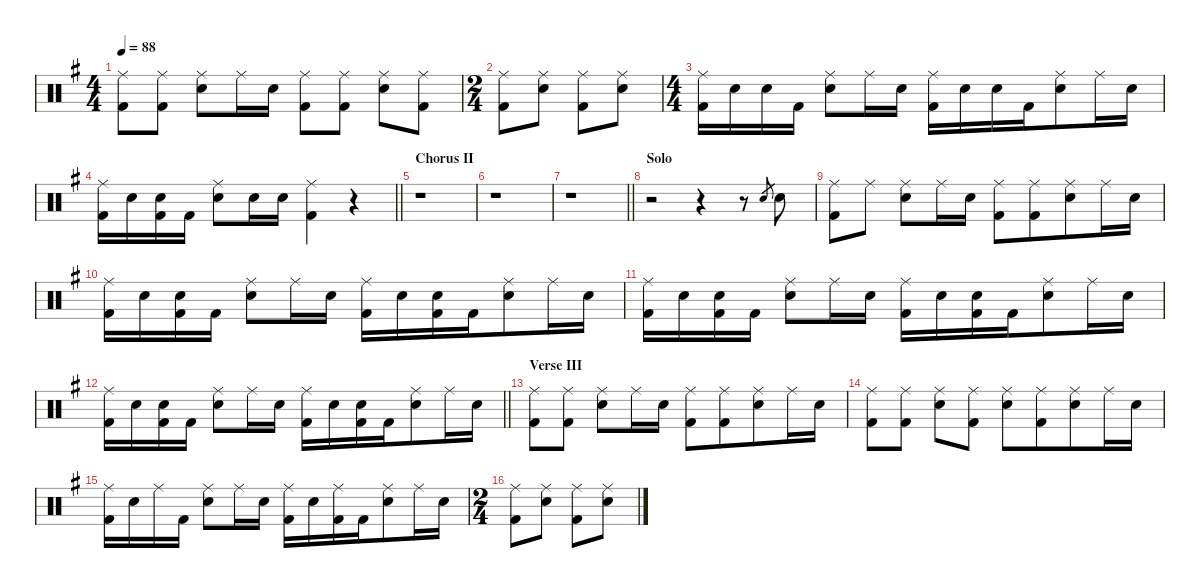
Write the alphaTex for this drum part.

\defaultSystemsLayout 4
\hideDynamics
\bracketExtendMode nobrackets
\singleTrackTrackNamePolicy hidden
\multiTrackTrackNamePolicy hidden
\firstSystemTrackNameMode fullname
\firstSystemTrackNameOrientation horizontal
\otherSystemsTrackNameOrientation horizontal
\track ("Drums" "drm.") {instrument percussion}
\staff {score}
\articulation defaults
\ts (4 4)
\tempo 88
\clef neutral
\ks g
("Ride (middle)"{acc forcenatural} "Kick (hit) 2"{acc forcenatural}).8{dy f beam Down} ("Ride (middle)"{acc forcenatural} "Kick (hit) 2"{acc forcenatural}).8{beam Down} ("Ride (middle)"{acc forcenatural} "Snare (hit) 2"{acc forcenatural}).8{beam Down} "Ride (middle)"{acc forcenatural}.16{beam Down} "Snare (hit) 2"{acc forcenatural}.16{beam Down} ("Ride (middle)"{acc forcenatural} "Kick (hit) 2"{acc forcenatural}).8{beam Down} ("Ride (middle)"{acc forcenatural} "Kick (hit) 2"{acc forcenatural}).8{beam Down} ("Ride (middle)"{acc forcenatural} "Snare (hit) 2"{acc forcenatural}).8{beam Down} ("Ride (middle)"{acc forcenatural} "Kick (hit) 2"{acc forcenatural}).8{beam Down} |
\ts (2 4)
\beaming (8 2 2)
("Ride (middle)"{acc forcenatural} "Kick (hit) 2"{acc forcenatural}).8{beam Down} ("Ride (middle)"{acc forcenatural} "Snare (hit) 2"{acc forcenatural}).8{beam Down} ("Ride (middle)"{acc forcenatural} "Kick (hit) 2"{acc forcenatural}).8{beam Down} ("Ride (middle)"{acc forcenatural} "Snare (hit) 2"{acc forcenatural}).8{beam Down} |
\ts (4 4)
\beaming (8 2 2 4)
("Ride (middle)"{acc forcenatural} "Kick (hit) 2"{acc forcenatural}).16{beam Down} "Snare (hit) 2"{acc forcenatural}.16{beam Down} "Snare (hit) 2"{acc forcenatural}.16{beam Down} "Kick (hit) 2"{acc forcenatural}.16{beam Down} ("Ride (middle)"{acc forcenatural} "Snare (hit) 2"{acc forcenatural}).8{beam Down} "Ride (middle)"{acc forcenatural}.16{beam Down} "Snare (hit) 2"{acc forcenatural}.16{beam Down} ("Ride (middle)"{acc forcenatural} "Kick (hit) 2"{acc forcenatural}).16{beam Down} "Snare (hit) 2"{acc forcenatural}.16{beam Down} "Snare (hit) 2"{acc forcenatural}.16{beam Down} "Kick (hit) 2"{acc forcenatural}.16{beam Down} ("Ride (middle)"{acc forcenatural} "Snare (hit) 2"{acc forcenatural}).8{beam Down} "Ride (middle)"{acc forcenatural}.16{beam Down} "Snare (hit) 2"{acc forcenatural}.16{beam Down} |
\barLineRight lightlight
("Ride (middle)"{acc forcenatural} "Kick (hit) 2"{acc forcenatural}).16{beam Down} "Snare (hit) 2"{acc forcenatural}.16{beam Down} ("Snare (hit) 2"{acc forcenatural} "Kick (hit) 2"{acc forcenatural}).16{beam Down} "Kick (hit) 2"{acc forcenatural}.16{beam Down} ("Ride (middle)"{acc forcenatural} "Snare (hit) 2"{acc forcenatural}).8{beam Down} "Snare (hit) 2"{acc forcenatural}.16{beam Down} "Snare (hit) 2"{acc forcenatural}.16{beam Down} ("Ride (middle)"{acc forcenatural} "Kick (hit) 2"{acc forcenatural}).4{beam Down} r.4{beam Down} |
\section ("" "Chorus II")
r.1{beam Down} |
r.1{beam Down} |
\barLineRight lightlight
r.1{beam Down} |
\section ("" "Solo")
r.2{beam Down} r.4{beam Down} r.8{beam Down} "Snare (hit) 2"{acc forcenatural}.8{gr dy mf beam Up} "Snare (hit) 2"{acc forcenatural}.8{dy f beam Down} |
("Ride (middle)"{acc forcenatural} "Kick (hit) 2"{acc forcenatural}).8{beam Down} "Ride (middle)"{acc forcenatural}.8{beam Down} ("Ride (middle)"{acc forcenatural} "Snare (hit) 2"{acc forcenatural}).8{beam Down} "Ride (middle)"{acc forcenatural}.16{beam Down} "Snare (hit) 2"{acc forcenatural}.16{beam Down} ("Ride (middle)"{acc forcenatural} "Kick (hit) 2"{acc forcenatural}).8{beam Down} ("Ride (middle)"{acc forcenatural} "Kick (hit) 2"{acc forcenatural}).8{beam Down} ("Ride (middle)"{acc forcenatural} "Snare (hit) 2"{acc forcenatural}).8{beam Down} "Ride (middle)"{acc forcenatural}.16{beam Down} "Snare (hit) 2"{acc forcenatural}.16{beam Down} |
("Ride (middle)"{acc forcenatural} "Kick (hit) 2"{acc forcenatural}).16{beam Down} "Snare (hit) 2"{acc forcenatural}.16{beam Down} ("Snare (hit) 2"{acc forcenatural} "Kick (hit) 2"{acc forcenatural}).16{beam Down} "Kick (hit) 2"{acc forcenatural}.16{beam Down} ("Ride (middle)"{acc forcenatural} "Snare (hit) 2"{acc forcenatural}).8{beam Down} "Ride (middle)"{acc forcenatural}.16{beam Down} "Snare (hit) 2"{acc forcenatural}.16{beam Down} ("Ride (middle)"{acc forcenatural} "Kick (hit) 2"{acc forcenatural}).16{beam Down} "Snare (hit) 2"{acc forcenatural}.16{beam Down} ("Snare (hit) 2"{acc forcenatural} "Kick (hit) 2"{acc forcenatural}).16{beam Down} "Kick (hit) 2"{acc forcenatural}.16{beam Down} ("Ride (middle)"{acc forcenatural} "Snare (hit) 2"{acc forcenatural}).8{beam Down} "Ride (middle)"{acc forcenatural}.16{beam Down} "Snare (hit) 2"{acc forcenatural}.16{beam Down} |
("Ride (middle)"{acc forcenatural} "Kick (hit) 2"{acc forcenatural}).16{beam Down} "Snare (hit) 2"{acc forcenatural}.16{beam Down} ("Snare (hit) 2"{acc forcenatural} "Kick (hit) 2"{acc forcenatural}).16{beam Down} "Kick (hit) 2"{acc forcenatural}.16{beam Down} ("Ride (middle)"{acc forcenatural} "Snare (hit) 2"{acc forcenatural}).8{beam Down} "Ride (middle)"{acc forcenatural}.16{beam Down} "Snare (hit) 2"{acc forcenatural}.16{beam Down} ("Ride (middle)"{acc forcenatural} "Kick (hit) 2"{acc forcenatural}).16{beam Down} "Snare (hit) 2"{acc forcenatural}.16{beam Down} ("Snare (hit) 2"{acc forcenatural} "Kick (hit) 2"{acc forcenatural}).16{beam Down} "Kick (hit) 2"{acc forcenatural}.16{beam Down} ("Ride (middle)"{acc forcenatural} "Snare (hit) 2"{acc forcenatural}).8{beam Down} "Ride (middle)"{acc forcenatural}.16{beam Down} "Snare (hit) 2"{acc forcenatural}.16{beam Down} |
\barLineRight lightlight
("Ride (middle)"{acc forcenatural} "Kick (hit) 2"{acc forcenatural}).16{beam Down} "Snare (hit) 2"{acc forcenatural}.16{beam Down} ("Snare (hit) 2"{acc forcenatural} "Kick (hit) 2"{acc forcenatural}).16{beam Down} "Kick (hit) 2"{acc forcenatural}.16{beam Down} ("Ride (middle)"{acc forcenatural} "Snare (hit) 2"{acc forcenatural}).8{beam Down} "Ride (middle)"{acc forcenatural}.16{beam Down} "Snare (hit) 2"{acc forcenatural}.16{beam Down} ("Ride (middle)"{acc forcenatural} "Kick (hit) 2"{acc forcenatural}).16{beam Down} "Snare (hit) 2"{acc forcenatural}.16{beam Down} ("Snare (hit) 2"{acc forcenatural} "Kick (hit) 2"{acc forcenatural}).16{beam Down} "Kick (hit) 2"{acc forcenatural}.16{beam Down} ("Ride (middle)"{acc forcenatural} "Snare (hit) 2"{acc forcenatural}).8{beam Down} "Ride (middle)"{acc forcenatural}.16{beam Down} "Snare (hit) 2"{acc forcenatural}.16{beam Down} |
\section ("" "Verse III")
("Ride (middle)"{acc forcenatural} "Kick (hit) 2"{acc forcenatural}).8{beam Down} ("Ride (middle)"{acc forcenatural} "Kick (hit) 2"{acc forcenatural}).8{beam Down} ("Ride (middle)"{acc forcenatural} "Snare (hit) 2"{acc forcenatural}).8{beam Down} "Ride (middle)"{acc forcenatural}.16{beam Down} "Snare (hit) 2"{acc forcenatural}.16{beam Down} ("Ride (middle)"{acc forcenatural} "Kick (hit) 2"{acc forcenatural}).8{beam Down} ("Ride (middle)"{acc forcenatural} "Kick (hit) 2"{acc forcenatural}).8{beam Down} ("Ride (middle)"{acc forcenatural} "Snare (hit) 2"{acc forcenatural}).8{beam Down} "Ride (middle)"{acc forcenatural}.16{beam Down} "Snare (hit) 2"{acc forcenatural}.16{beam Down} |
("Ride (middle)"{acc forcenatural} "Kick (hit) 2"{acc forcenatural}).8{beam Down} ("Ride (middle)"{acc forcenatural} "Kick (hit) 2"{acc forcenatural}).8{beam Down} ("Ride (middle)"{acc forcenatural} "Snare (hit) 2"{acc forcenatural}).8{beam Down} ("Ride (middle)"{acc forcenatural} "Kick (hit) 2"{acc forcenatural}).8{beam Down} ("Ride (middle)"{acc forcenatural} "Snare (hit) 2"{acc forcenatural}).8{beam Down} ("Ride (middle)"{acc forcenatural} "Kick (hit) 2"{acc forcenatural}).8{beam Down} ("Ride (middle)"{acc forcenatural} "Snare (hit) 2"{acc forcenatural}).8{beam Down} "Ride (middle)"{acc forcenatural}.16{beam Down} "Snare (hit) 2"{acc forcenatural}.16{beam Down} |
("Ride (middle)"{acc forcenatural} "Kick (hit) 2"{acc forcenatural}).16{beam Down} "Snare (hit) 2"{acc forcenatural}.16{beam Down} "Ride (middle)"{acc forcenatural}.16{beam Down} "Kick (hit) 2"{acc forcenatural}.16{beam Down} ("Ride (middle)"{acc forcenatural} "Snare (hit) 2"{acc forcenatural}).8{beam Down} "Ride (middle)"{acc forcenatural}.16{beam Down} "Snare (hit) 2"{acc forcenatural}.16{beam Down} ("Ride (middle)"{acc forcenatural} "Kick (hit) 2"{acc forcenatural}).16{beam Down} "Snare (hit) 2"{acc forcenatural}.16{beam Down} ("Ride (middle)"{acc forcenatural} "Kick (hit) 2"{acc forcenatural}).16{beam Down} "Kick (hit) 2"{acc forcenatural}.16{beam Down} ("Ride (middle)"{acc forcenatural} "Snare (hit) 2"{acc forcenatural}).8{beam Down} "Ride (middle)"{acc forcenatural}.16{beam Down} "Snare (hit) 2"{acc forcenatural}.16{beam Down} |
\ts (2 4)
\beaming (8 2 2)
("Ride (middle)"{acc forcenatural} "Kick (hit) 2"{acc forcenatural}).8{beam Down} ("Ride (middle)"{acc forcenatural} "Snare (hit) 2"{acc forcenatural}).8{beam Down} ("Ride (middle)"{acc forcenatural} "Kick (hit) 2"{acc forcenatural}).8{beam Down} ("Ride (middle)"{acc forcenatural} "Snare (hit) 2"{acc forcenatural}).8{beam Down}
